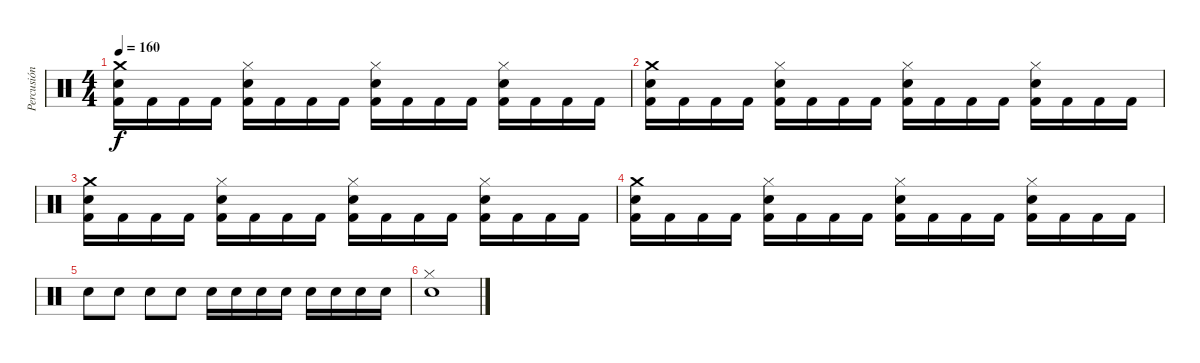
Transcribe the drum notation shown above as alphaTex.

\track ("Percusión" "Percusión") {instrument percussion}
\staff {score}
\articulation defaults
\ts (4 4)
\tempo 160
\clef neutral
\ks c
("Crash medium (hit)" "Snare (hit) 2" "Kick (hit) 2").16{dy f} "Kick (hit) 2".16 "Kick (hit) 2".16 "Kick (hit) 2".16 ("Hi-Hat (closed)" "Snare (hit) 2" "Kick (hit) 2").16 "Kick (hit) 2".16 "Kick (hit) 2".16 "Kick (hit) 2".16 ("Hi-Hat (closed)" "Snare (hit) 2" "Kick (hit) 2").16 "Kick (hit) 2".16 "Kick (hit) 2".16 "Kick (hit) 2".16 ("Hi-Hat (closed)" "Snare (hit) 2" "Kick (hit) 2").16 "Kick (hit) 2".16 "Kick (hit) 2".16 "Kick (hit) 2".16 |
("Crash medium (hit)" "Snare (hit) 2" "Kick (hit) 2").16 "Kick (hit) 2".16 "Kick (hit) 2".16 "Kick (hit) 2".16 ("Hi-Hat (closed)" "Snare (hit) 2" "Kick (hit) 2").16 "Kick (hit) 2".16 "Kick (hit) 2".16 "Kick (hit) 2".16 ("Hi-Hat (closed)" "Snare (hit) 2" "Kick (hit) 2").16 "Kick (hit) 2".16 "Kick (hit) 2".16 "Kick (hit) 2".16 ("Hi-Hat (closed)" "Snare (hit) 2" "Kick (hit) 2").16 "Kick (hit) 2".16 "Kick (hit) 2".16 "Kick (hit) 2".16 |
("Crash medium (hit)" "Snare (hit) 2" "Kick (hit) 2").16 "Kick (hit) 2".16 "Kick (hit) 2".16 "Kick (hit) 2".16 ("Hi-Hat (closed)" "Snare (hit) 2" "Kick (hit) 2").16 "Kick (hit) 2".16 "Kick (hit) 2".16 "Kick (hit) 2".16 ("Hi-Hat (closed)" "Snare (hit) 2" "Kick (hit) 2").16 "Kick (hit) 2".16 "Kick (hit) 2".16 "Kick (hit) 2".16 ("Hi-Hat (closed)" "Snare (hit) 2" "Kick (hit) 2").16 "Kick (hit) 2".16 "Kick (hit) 2".16 "Kick (hit) 2".16 |
("Crash medium (hit)" "Snare (hit) 2" "Kick (hit) 2").16 "Kick (hit) 2".16 "Kick (hit) 2".16 "Kick (hit) 2".16 ("Hi-Hat (closed)" "Snare (hit) 2" "Kick (hit) 2").16 "Kick (hit) 2".16 "Kick (hit) 2".16 "Kick (hit) 2".16 ("Hi-Hat (closed)" "Snare (hit) 2" "Kick (hit) 2").16 "Kick (hit) 2".16 "Kick (hit) 2".16 "Kick (hit) 2".16 ("Hi-Hat (closed)" "Snare (hit) 2" "Kick (hit) 2").16 "Kick (hit) 2".16 "Kick (hit) 2".16 "Kick (hit) 2".16 |
"Snare (hit) 2".8 "Snare (hit) 2".8 "Snare (hit) 2".8 "Snare (hit) 2".8 "Snare (hit) 2".16 "Snare (hit) 2".16 "Snare (hit) 2".16 "Snare (hit) 2".16 "Snare (hit) 2".16 "Snare (hit) 2".16 "Snare (hit) 2".16 "Snare (hit) 2".16 |
("Hi-Hat (closed)" "Snare (hit) 2").1
